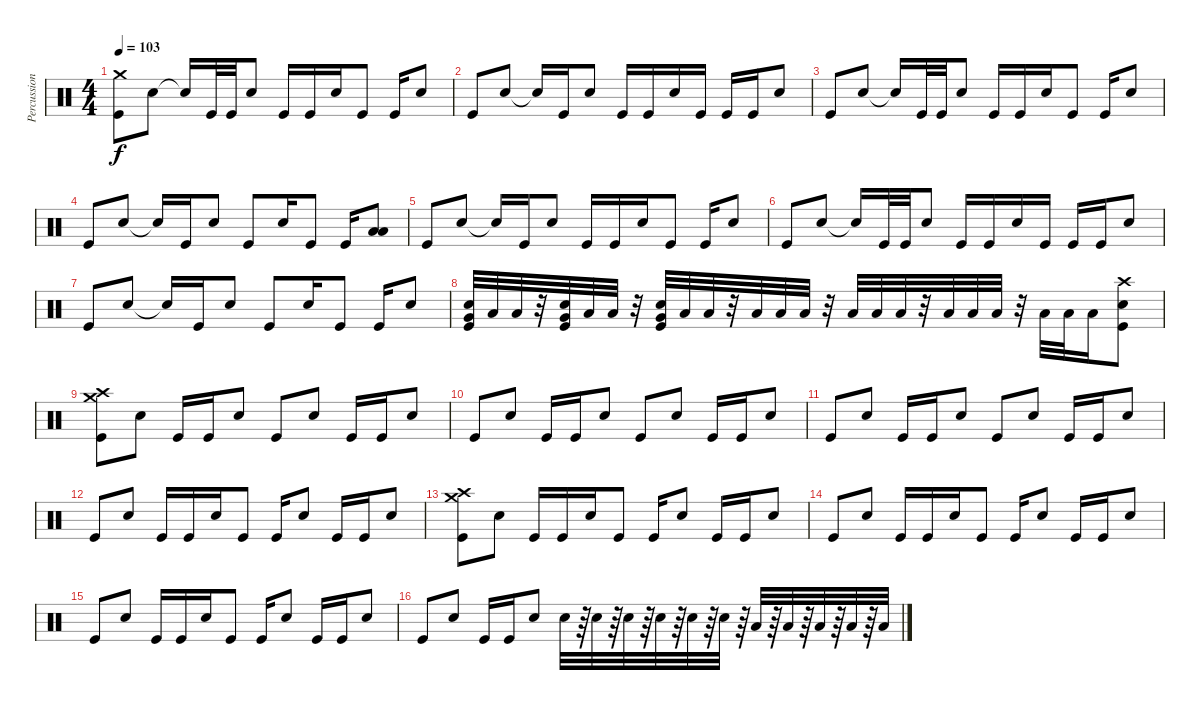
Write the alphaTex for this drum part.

\track ("Percussion" "Percussion") {instrument percussion}
\staff {score}
\articulation defaults
\ts (4 4)
\tempo 103
\clef neutral
\ks c
("Crash medium (hit)" "Kick (hit)").8{dy f} "Electric Snare (hit)".8 "Snare (hit)"{t}.16 "Kick (hit)".32 "Kick (hit)".32 "Electric Snare (hit)".8 "Kick (hit)".16 "Kick (hit)".16 "Electric Snare (hit)".16 "Kick (hit)".8 "Kick (hit)".16 "Electric Snare (hit)".8 |
"Kick (hit)".8 "Electric Snare (hit)".8 "Snare (hit)"{t}.16 "Kick (hit)".16 "Electric Snare (hit)".8 "Kick (hit)".16 "Kick (hit)".16 "Electric Snare (hit)".16 "Kick (hit)".16 "Kick (hit)".16 "Kick (hit)".16 "Electric Snare (hit)".8 |
"Kick (hit)".8 "Electric Snare (hit)".8 "Snare (hit)"{t}.16 "Kick (hit)".32 "Kick (hit)".32 "Electric Snare (hit)".8 "Kick (hit)".16 "Kick (hit)".16 "Electric Snare (hit)".16 "Kick (hit)".8 "Kick (hit)".16 "Electric Snare (hit)".8 |
"Kick (hit)".8 "Electric Snare (hit)".8 "Snare (hit)"{t}.16 "Kick (hit)".16 "Electric Snare (hit)".8 "Kick (hit)".8 "Electric Snare (hit)".16 "Kick (hit)".8 "Kick (hit)".16 ("Low Floor Tom (hit)" "Low Floor Tom (hit)").8 |
"Kick (hit)".8 "Electric Snare (hit)".8 "Snare (hit)"{t}.16 "Kick (hit)".16 "Electric Snare (hit)".8 "Kick (hit)".16 "Kick (hit)".16 "Electric Snare (hit)".16 "Kick (hit)".8 "Kick (hit)".16 "Electric Snare (hit)".8 |
"Kick (hit)".8 "Electric Snare (hit)".8 "Snare (hit)"{t}.16 "Kick (hit)".32 "Kick (hit)".32 "Electric Snare (hit)".8 "Kick (hit)".16 "Kick (hit)".16 "Electric Snare (hit)".16 "Kick (hit)".16 "Kick (hit)".16 "Kick (hit)".16 "Electric Snare (hit)".8 |
"Kick (hit)".8 "Electric Snare (hit)".8 "Snare (hit)"{t}.16 "Kick (hit)".16 "Electric Snare (hit)".8 "Kick (hit)".8 "Electric Snare (hit)".16 "Kick (hit)".8 "Kick (hit)".16 "Electric Snare (hit)".8 |
("Electric Snare (hit)" "Very Low Tom (hit)" "Kick (hit)").32 "Low Floor Tom (hit)".32 "Low Floor Tom (hit)".32 r.32 ("Electric Snare (hit)" "Very Low Tom (hit)" "Kick (hit)").32 "Low Floor Tom (hit)".32 "Low Floor Tom (hit)".32 r.32 ("Electric Snare (hit)" "Very Low Tom (hit)" "Kick (hit)").32 "Low Floor Tom (hit)".32 "Low Floor Tom (hit)".32 r.32 "Low Floor Tom (hit)".32 "Low Floor Tom (hit)".32 "Low Floor Tom (hit)".32 r.32 "Low Floor Tom (hit)".32 "Low Floor Tom (hit)".32 "Low Floor Tom (hit)".32 r.32 "Low Floor Tom (hit)".32 "Low Floor Tom (hit)".32 "Low Floor Tom (hit)".32 r.32 "Low Floor Tom (hit)".32 "Low Floor Tom (hit)".32 "Low Floor Tom (hit)".16 ("Crash high (hit)" "Electric Snare (hit)" "Kick (hit)").8 |
("Crash high (hit)" "Crash medium (hit)" "Kick (hit)").8 "Electric Snare (hit)".8 "Kick (hit)".16 "Kick (hit)".16 "Electric Snare (hit)".8 "Kick (hit)".8 "Electric Snare (hit)".8 "Kick (hit)".16 "Kick (hit)".16 "Electric Snare (hit)".8 |
"Kick (hit)".8 "Electric Snare (hit)".8 "Kick (hit)".16 "Kick (hit)".16 "Electric Snare (hit)".8 "Kick (hit)".8 "Electric Snare (hit)".8 "Kick (hit)".16 "Kick (hit)".16 "Electric Snare (hit)".8 |
"Kick (hit)".8 "Electric Snare (hit)".8 "Kick (hit)".16 "Kick (hit)".16 "Electric Snare (hit)".8 "Kick (hit)".8 "Electric Snare (hit)".8 "Kick (hit)".16 "Kick (hit)".16 "Electric Snare (hit)".8 |
"Kick (hit)".8 "Electric Snare (hit)".8 "Kick (hit)".16 "Kick (hit)".16 "Electric Snare (hit)".16 "Kick (hit)".8 "Kick (hit)".16 "Electric Snare (hit)".8 "Kick (hit)".16 "Kick (hit)".16 "Electric Snare (hit)".8 |
("Crash high (hit)" "Crash medium (hit)" "Kick (hit)").8 "Electric Snare (hit)".8 "Kick (hit)".16 "Kick (hit)".16 "Electric Snare (hit)".16 "Kick (hit)".8 "Kick (hit)".16 "Electric Snare (hit)".8 "Kick (hit)".16 "Kick (hit)".16 "Electric Snare (hit)".8 |
"Kick (hit)".8 "Electric Snare (hit)".8 "Kick (hit)".16 "Kick (hit)".16 "Electric Snare (hit)".16 "Kick (hit)".8 "Kick (hit)".16 "Electric Snare (hit)".8 "Kick (hit)".16 "Kick (hit)".16 "Electric Snare (hit)".8 |
"Kick (hit)".8 "Electric Snare (hit)".8 "Kick (hit)".16 "Kick (hit)".16 "Electric Snare (hit)".16 "Kick (hit)".8 "Kick (hit)".16 "Electric Snare (hit)".8 "Kick (hit)".16 "Kick (hit)".16 "Electric Snare (hit)".8 |
"Kick (hit)".8 "Electric Snare (hit)".8 "Kick (hit)".16 "Kick (hit)".16 "Electric Snare (hit)".8 "Electric Snare (hit)".32 r.64 "Electric Snare (hit)".32 r.64 "Electric Snare (hit)".32 r.64 "Electric Snare (hit)".32 r.64 "Electric Snare (hit)".32 r.64 "Electric Snare (hit)".32 r.64 "Low Tom (hit)".32 r.64 "Low Tom (hit)".32 r.64 "Low Tom (hit)".32 r.64 "Low Floor Tom (hit)".32 r.64 "Low Floor Tom (hit)".32
